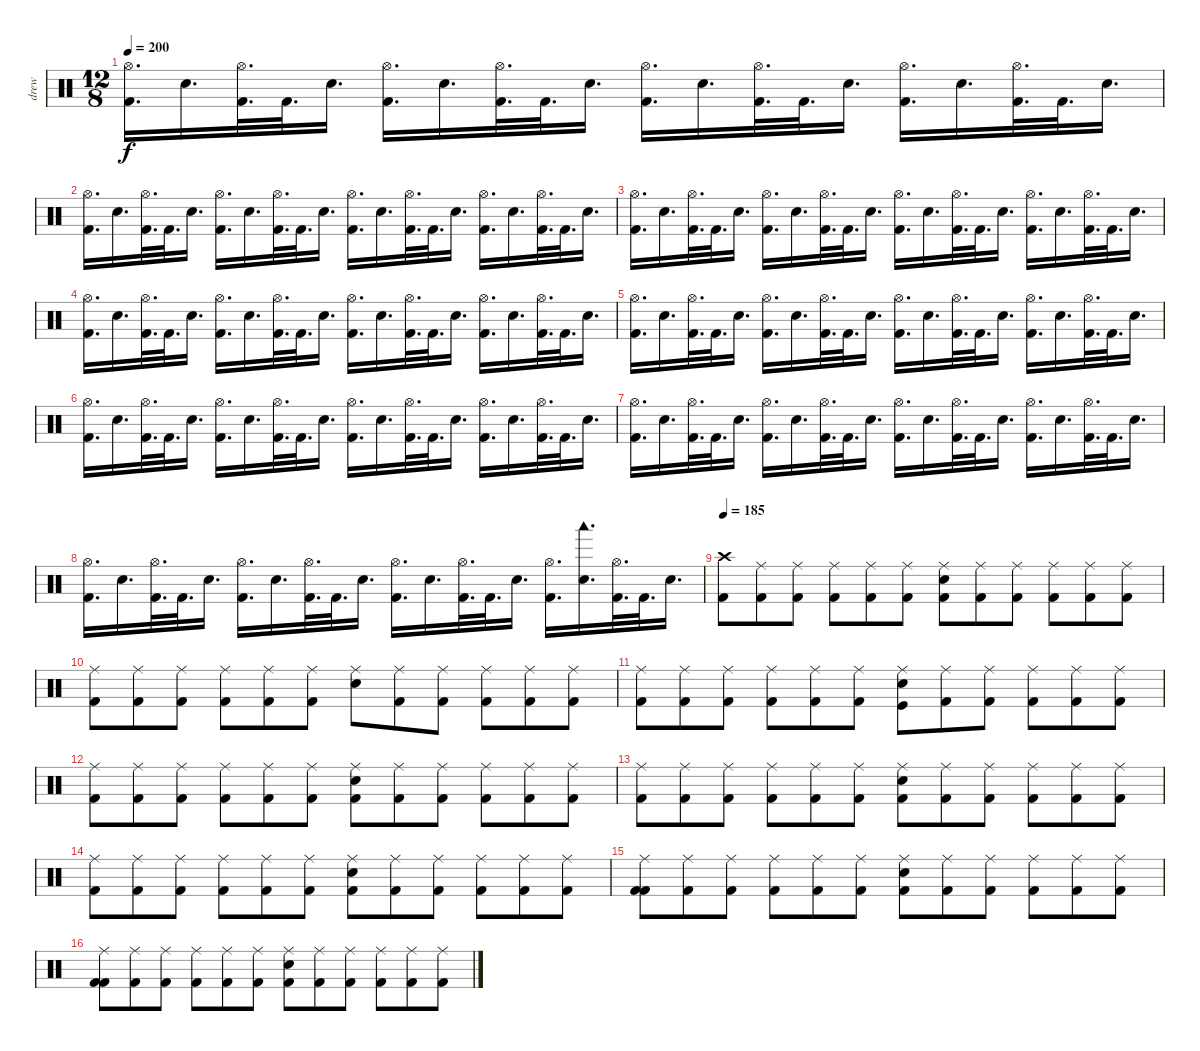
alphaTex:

\track ("drew" "drew") {instrument percussion}
\staff {score}
\articulation defaults
\ts (12 8)
\tempo 200
\clef neutral
\ks c
("Hi-Hat (open)" "Kick (hit) 2").16{d dy f} "Snare (hit) 2".16{d} ("Hi-Hat (open)" "Kick (hit) 2").32{d} "Kick (hit) 2".32{d} "Snare (hit) 2".16{d} ("Hi-Hat (open)" "Kick (hit) 2").16{d} "Snare (hit) 2".16{d} ("Hi-Hat (open)" "Kick (hit) 2").32{d} "Kick (hit) 2".32{d} "Snare (hit) 2".16{d} ("Hi-Hat (open)" "Kick (hit) 2").16{d} "Snare (hit) 2".16{d} ("Hi-Hat (open)" "Kick (hit) 2").32{d} "Kick (hit) 2".32{d} "Snare (hit) 2".16{d} ("Hi-Hat (open)" "Kick (hit) 2").16{d} "Snare (hit) 2".16{d} ("Hi-Hat (open)" "Kick (hit) 2").32{d} "Kick (hit) 2".32{d} "Snare (hit) 2".16{d} |
("Hi-Hat (open)" "Kick (hit) 2").16{d} "Snare (hit) 2".16{d} ("Hi-Hat (open)" "Kick (hit) 2").32{d} "Kick (hit) 2".32{d} "Snare (hit) 2".16{d} ("Hi-Hat (open)" "Kick (hit) 2").16{d} "Snare (hit) 2".16{d} ("Hi-Hat (open)" "Kick (hit) 2").32{d} "Kick (hit) 2".32{d} "Snare (hit) 2".16{d} ("Hi-Hat (open)" "Kick (hit) 2").16{d} "Snare (hit) 2".16{d} ("Hi-Hat (open)" "Kick (hit) 2").32{d} "Kick (hit) 2".32{d} "Snare (hit) 2".16{d} ("Hi-Hat (open)" "Kick (hit) 2").16{d} "Snare (hit) 2".16{d} ("Hi-Hat (open)" "Kick (hit) 2").32{d} "Kick (hit) 2".32{d} "Snare (hit) 2".16{d} |
("Hi-Hat (open)" "Kick (hit) 2").16{d} "Snare (hit) 2".16{d} ("Hi-Hat (open)" "Kick (hit) 2").32{d} "Kick (hit) 2".32{d} "Snare (hit) 2".16{d} ("Hi-Hat (open)" "Kick (hit) 2").16{d} "Snare (hit) 2".16{d} ("Hi-Hat (open)" "Kick (hit) 2").32{d} "Kick (hit) 2".32{d} "Snare (hit) 2".16{d} ("Hi-Hat (open)" "Kick (hit) 2").16{d} "Snare (hit) 2".16{d} ("Hi-Hat (open)" "Kick (hit) 2").32{d} "Kick (hit) 2".32{d} "Snare (hit) 2".16{d} ("Hi-Hat (open)" "Kick (hit) 2").16{d} "Snare (hit) 2".16{d} ("Hi-Hat (open)" "Kick (hit) 2").32{d} "Kick (hit) 2".32{d} "Snare (hit) 2".16{d} |
("Hi-Hat (open)" "Kick (hit) 2").16{d} "Snare (hit) 2".16{d} ("Hi-Hat (open)" "Kick (hit) 2").32{d} "Kick (hit) 2".32{d} "Snare (hit) 2".16{d} ("Hi-Hat (open)" "Kick (hit) 2").16{d} "Snare (hit) 2".16{d} ("Hi-Hat (open)" "Kick (hit) 2").32{d} "Kick (hit) 2".32{d} "Snare (hit) 2".16{d} ("Hi-Hat (open)" "Kick (hit) 2").16{d} "Snare (hit) 2".16{d} ("Hi-Hat (open)" "Kick (hit) 2").32{d} "Kick (hit) 2".32{d} "Snare (hit) 2".16{d} ("Hi-Hat (open)" "Kick (hit) 2").16{d} "Snare (hit) 2".16{d} ("Hi-Hat (open)" "Kick (hit) 2").32{d} "Kick (hit) 2".32{d} "Snare (hit) 2".16{d} |
("Hi-Hat (open)" "Kick (hit) 2").16{d} "Snare (hit) 2".16{d} ("Hi-Hat (open)" "Kick (hit) 2").32{d} "Kick (hit) 2".32{d} "Snare (hit) 2".16{d} ("Hi-Hat (open)" "Kick (hit) 2").16{d} "Snare (hit) 2".16{d} ("Hi-Hat (open)" "Kick (hit) 2").32{d} "Kick (hit) 2".32{d} "Snare (hit) 2".16{d} ("Hi-Hat (open)" "Kick (hit) 2").16{d} "Snare (hit) 2".16{d} ("Hi-Hat (open)" "Kick (hit) 2").32{d} "Kick (hit) 2".32{d} "Snare (hit) 2".16{d} ("Hi-Hat (open)" "Kick (hit) 2").16{d} "Snare (hit) 2".16{d} ("Hi-Hat (open)" "Kick (hit) 2").32{d} "Kick (hit) 2".32{d} "Snare (hit) 2".16{d} |
("Hi-Hat (open)" "Kick (hit) 2").16{d} "Snare (hit) 2".16{d} ("Hi-Hat (open)" "Kick (hit) 2").32{d} "Kick (hit) 2".32{d} "Snare (hit) 2".16{d} ("Hi-Hat (open)" "Kick (hit) 2").16{d} "Snare (hit) 2".16{d} ("Hi-Hat (open)" "Kick (hit) 2").32{d} "Kick (hit) 2".32{d} "Snare (hit) 2".16{d} ("Hi-Hat (open)" "Kick (hit) 2").16{d} "Snare (hit) 2".16{d} ("Hi-Hat (open)" "Kick (hit) 2").32{d} "Kick (hit) 2".32{d} "Snare (hit) 2".16{d} ("Hi-Hat (open)" "Kick (hit) 2").16{d} "Snare (hit) 2".16{d} ("Hi-Hat (open)" "Kick (hit) 2").32{d} "Kick (hit) 2".32{d} "Snare (hit) 2".16{d} |
("Hi-Hat (open)" "Kick (hit) 2").16{d} "Snare (hit) 2".16{d} ("Hi-Hat (open)" "Kick (hit) 2").32{d} "Kick (hit) 2".32{d} "Snare (hit) 2".16{d} ("Hi-Hat (open)" "Kick (hit) 2").16{d} "Snare (hit) 2".16{d} ("Hi-Hat (open)" "Kick (hit) 2").32{d} "Kick (hit) 2".32{d} "Snare (hit) 2".16{d} ("Hi-Hat (open)" "Kick (hit) 2").16{d} "Snare (hit) 2".16{d} ("Hi-Hat (open)" "Kick (hit) 2").32{d} "Kick (hit) 2".32{d} "Snare (hit) 2".16{d} ("Hi-Hat (open)" "Kick (hit) 2").16{d} "Snare (hit) 2".16{d} ("Hi-Hat (open)" "Kick (hit) 2").32{d} "Kick (hit) 2".32{d} "Snare (hit) 2".16{d} |
("Hi-Hat (open)" "Kick (hit) 2").16{d} "Snare (hit) 2".16{d} ("Hi-Hat (open)" "Kick (hit) 2").32{d} "Kick (hit) 2".32{d} "Snare (hit) 2".16{d} ("Hi-Hat (open)" "Kick (hit) 2").16{d} "Snare (hit) 2".16{d} ("Hi-Hat (open)" "Kick (hit) 2").32{d} "Kick (hit) 2".32{d} "Snare (hit) 2".16{d} ("Hi-Hat (open)" "Kick (hit) 2").16{d} "Snare (hit) 2".16{d} ("Hi-Hat (open)" "Kick (hit) 2").32{d} "Kick (hit) 2".32{d} "Snare (hit) 2".16{d} ("Hi-Hat (open)" "Kick (hit) 2").16{d} ("Snare (hit) 2" "Woodblock low (hit)").16{d} ("Hi-Hat (open)" "Kick (hit) 2").32{d} "Kick (hit) 2".32{d} "Snare (hit) 2".16{d} |
\tempo 210
\tempo 185
("Crash high (hit)" "Kick (hit) 2").8 ("Ride (middle)" "Kick (hit) 2").8 ("Ride (middle)" "Kick (hit) 2").8 ("Ride (middle)" "Kick (hit) 2").8 ("Ride (middle)" "Kick (hit) 2").8 ("Ride (middle)" "Kick (hit) 2").8 ("Ride (middle)" "Snare (hit) 2" "Kick (hit) 2").8 ("Ride (middle)" "Kick (hit) 2").8 ("Ride (middle)" "Kick (hit) 2").8 ("Ride (middle)" "Kick (hit) 2").8 ("Ride (middle)" "Kick (hit) 2").8 ("Ride (middle)" "Kick (hit) 2").8 |
("Ride (middle)" "Kick (hit) 2").8 ("Ride (middle)" "Kick (hit) 2").8 ("Ride (middle)" "Kick (hit) 2").8 ("Ride (middle)" "Kick (hit) 2").8 ("Ride (middle)" "Kick (hit) 2").8 ("Ride (middle)" "Kick (hit) 2").8 ("Ride (middle)" "Snare (hit) 2").8 ("Ride (middle)" "Kick (hit) 2").8 ("Ride (middle)" "Kick (hit) 2").8 ("Ride (middle)" "Kick (hit) 2").8 ("Ride (middle)" "Kick (hit) 2").8 ("Ride (middle)" "Kick (hit) 2").8 |
("Ride (middle)" "Kick (hit) 2").8 ("Ride (middle)" "Kick (hit) 2").8 ("Ride (middle)" "Kick (hit) 2").8 ("Ride (middle)" "Kick (hit) 2").8 ("Ride (middle)" "Kick (hit) 2").8 ("Ride (middle)" "Kick (hit) 2").8 ("Ride (middle)" "Snare (hit) 2" "Kick (hit)").8 ("Ride (middle)" "Kick (hit) 2").8 ("Ride (middle)" "Kick (hit) 2").8 ("Ride (middle)" "Kick (hit) 2").8 ("Ride (middle)" "Kick (hit) 2").8 ("Ride (middle)" "Kick (hit) 2").8 |
("Ride (middle)" "Kick (hit) 2").8 ("Ride (middle)" "Kick (hit) 2").8 ("Ride (middle)" "Kick (hit) 2").8 ("Ride (middle)" "Kick (hit) 2").8 ("Ride (middle)" "Kick (hit) 2").8 ("Ride (middle)" "Kick (hit) 2").8 ("Ride (middle)" "Kick (hit) 2" "Snare (hit) 2").8 ("Ride (middle)" "Kick (hit) 2").8 ("Ride (middle)" "Kick (hit) 2").8 ("Ride (middle)" "Kick (hit) 2").8 ("Ride (middle)" "Kick (hit) 2").8 ("Ride (middle)" "Kick (hit) 2").8 |
("Ride (middle)" "Kick (hit) 2").8 ("Ride (middle)" "Kick (hit) 2").8 ("Ride (middle)" "Kick (hit) 2").8 ("Ride (middle)" "Kick (hit) 2").8 ("Ride (middle)" "Kick (hit) 2").8 ("Ride (middle)" "Kick (hit) 2").8 ("Ride (middle)" "Kick (hit) 2" "Snare (hit) 2").8 ("Ride (middle)" "Kick (hit) 2").8 ("Ride (middle)" "Kick (hit) 2").8 ("Ride (middle)" "Kick (hit) 2").8 ("Ride (middle)" "Kick (hit) 2").8 ("Ride (middle)" "Kick (hit) 2").8 |
("Ride (middle)" "Kick (hit) 2").8 ("Ride (middle)" "Kick (hit) 2").8 ("Ride (middle)" "Kick (hit) 2").8 ("Ride (middle)" "Kick (hit) 2").8 ("Ride (middle)" "Kick (hit) 2").8 ("Ride (middle)" "Kick (hit) 2").8 ("Ride (middle)" "Kick (hit) 2" "Snare (hit) 2").8 ("Ride (middle)" "Kick (hit) 2").8 ("Ride (middle)" "Kick (hit) 2").8 ("Ride (middle)" "Kick (hit) 2").8 ("Ride (middle)" "Kick (hit) 2").8 ("Ride (middle)" "Kick (hit) 2").8 |
("Ride (middle)" "Kick (hit) 2" "Kick (hit) 2").8 ("Ride (middle)" "Kick (hit) 2").8 ("Ride (middle)" "Kick (hit) 2").8 ("Ride (middle)" "Kick (hit) 2").8 ("Ride (middle)" "Kick (hit) 2").8 ("Ride (middle)" "Kick (hit) 2").8 ("Ride (middle)" "Kick (hit) 2" "Snare (hit) 2").8 ("Ride (middle)" "Kick (hit) 2").8 ("Ride (middle)" "Kick (hit) 2").8 ("Ride (middle)" "Kick (hit) 2").8 ("Ride (middle)" "Kick (hit) 2").8 ("Ride (middle)" "Kick (hit) 2").8 |
("Ride (middle)" "Kick (hit) 2" "Kick (hit) 2").8 ("Ride (middle)" "Kick (hit) 2").8 ("Ride (middle)" "Kick (hit) 2").8 ("Ride (middle)" "Kick (hit) 2").8 ("Ride (middle)" "Kick (hit) 2").8 ("Ride (middle)" "Kick (hit) 2").8 ("Ride (middle)" "Kick (hit) 2" "Snare (hit) 2").8 ("Ride (middle)" "Kick (hit) 2").8 ("Ride (middle)" "Kick (hit) 2").8 ("Ride (middle)" "Kick (hit) 2").8 ("Ride (middle)" "Kick (hit) 2").8 ("Ride (middle)" "Kick (hit) 2").8
